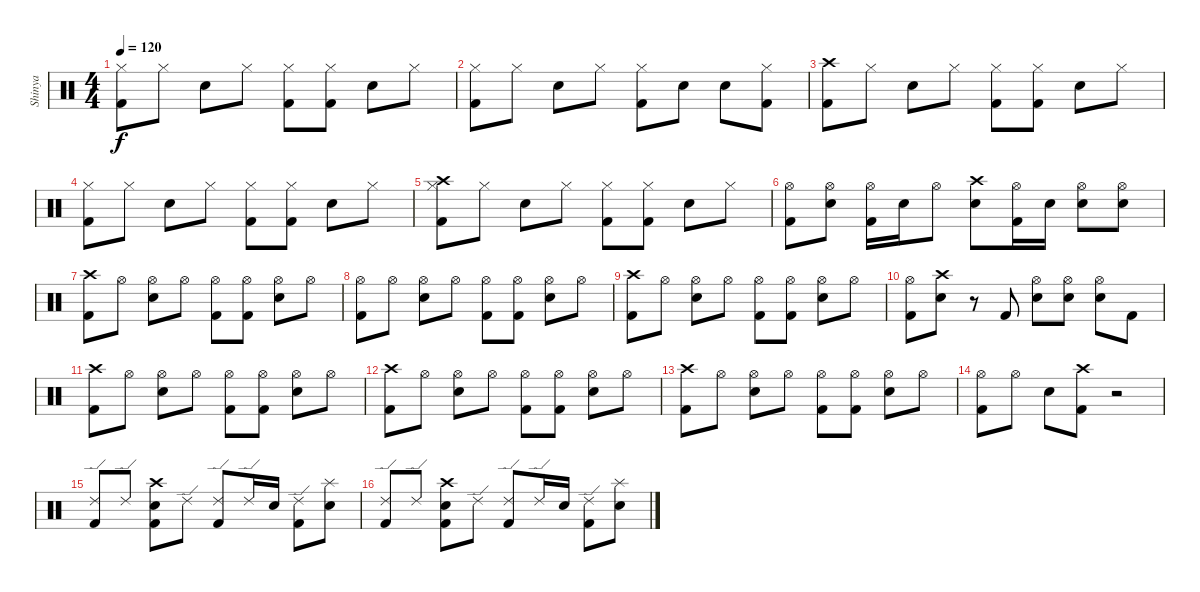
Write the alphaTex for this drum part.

\track ("Shinya" "Shinya") {instrument percussion}
\staff {score}
\articulation defaults
\ts (4 4)
\tempo 120
\clef neutral
\ks c
("Hi-Hat (closed)" "Kick (hit) 2").8{dy f} "Hi-Hat (closed)".8 "Electric Snare (hit)".8 "Hi-Hat (closed)".8 ("Hi-Hat (closed)" "Kick (hit) 2").8 ("Hi-Hat (closed)" "Kick (hit) 2").8 "Electric Snare (hit)".8 "Hi-Hat (closed)".8 |
("Hi-Hat (closed)" "Kick (hit) 2").8 "Hi-Hat (closed)".8 "Electric Snare (hit)".8 "Hi-Hat (closed)".8 ("Hi-Hat (closed)" "Kick (hit) 2").8 "Electric Snare (hit)".8 "Electric Snare (hit)".8 ("Hi-Hat (closed)" "Kick (hit) 2").8 |
("Crash high (hit)" "Kick (hit) 2").8 "Hi-Hat (closed)".8 "Electric Snare (hit)".8 "Hi-Hat (closed)".8 ("Hi-Hat (closed)" "Kick (hit) 2").8 ("Hi-Hat (closed)" "Kick (hit) 2").8 "Electric Snare (hit)".8 "Hi-Hat (closed)".8 |
("Hi-Hat (closed)" "Kick (hit) 2").8 "Hi-Hat (closed)".8 "Electric Snare (hit)".8 "Hi-Hat (closed)".8 ("Hi-Hat (closed)" "Kick (hit) 2").8 ("Hi-Hat (closed)" "Kick (hit) 2").8 "Electric Snare (hit)".8 "Hi-Hat (closed)".8 |
("Hi-Hat (closed)" "Crash high (hit)" "Kick (hit) 2").8 "Hi-Hat (closed)".8 "Electric Snare (hit)".8 "Hi-Hat (closed)".8 ("Hi-Hat (closed)" "Kick (hit) 2").8 ("Hi-Hat (closed)" "Kick (hit) 2").8 "Electric Snare (hit)".8 "Hi-Hat (closed)".8 |
("Hi-Hat (open)" "Kick (hit) 2").8 ("Electric Snare (hit)" "Hi-Hat (open)").8 ("Hi-Hat (open)" "Kick (hit) 2").16 "Electric Snare (hit)".16 "Hi-Hat (open)".8 ("Electric Snare (hit)" "Crash high (hit)").8 ("Hi-Hat (open)" "Kick (hit) 2").16 "Electric Snare (hit)".16 ("Electric Snare (hit)" "Hi-Hat (open)").8 ("Electric Snare (hit)" "Hi-Hat (open)").8 |
("Crash high (hit)" "Kick (hit) 2").8 "Hi-Hat (open)".8 ("Electric Snare (hit)" "Hi-Hat (open)").8 "Hi-Hat (open)".8 ("Hi-Hat (open)" "Kick (hit) 2").8 ("Hi-Hat (open)" "Kick (hit) 2").8 ("Electric Snare (hit)" "Hi-Hat (open)").8 "Hi-Hat (open)".8 |
("Hi-Hat (open)" "Kick (hit) 2").8 "Hi-Hat (open)".8 ("Electric Snare (hit)" "Hi-Hat (open)").8 "Hi-Hat (open)".8 ("Hi-Hat (open)" "Kick (hit) 2").8 ("Hi-Hat (open)" "Kick (hit) 2").8 ("Electric Snare (hit)" "Hi-Hat (open)").8 "Hi-Hat (open)".8 |
("Crash high (hit)" "Kick (hit) 2").8 "Hi-Hat (open)".8 ("Electric Snare (hit)" "Hi-Hat (open)").8 "Hi-Hat (open)".8 ("Hi-Hat (open)" "Kick (hit) 2").8 ("Hi-Hat (open)" "Kick (hit) 2").8 ("Electric Snare (hit)" "Hi-Hat (open)").8 "Hi-Hat (open)".8 |
("Hi-Hat (open)" "Kick (hit) 2").8 ("Electric Snare (hit)" "Crash high (hit)").8 r.8 "Kick (hit) 2".8 ("Electric Snare (hit)" "Hi-Hat (open)").8 ("Electric Snare (hit)" "Hi-Hat (open)").8 ("Electric Snare (hit)" "Hi-Hat (open)").8 "Kick (hit) 2".8 |
("Crash high (hit)" "Kick (hit) 2").8 "Hi-Hat (open)".8 ("Electric Snare (hit)" "Hi-Hat (open)").8 "Hi-Hat (open)".8 ("Hi-Hat (open)" "Kick (hit) 2").8 ("Hi-Hat (open)" "Kick (hit) 2").8 ("Electric Snare (hit)" "Hi-Hat (open)").8 "Hi-Hat (open)".8 |
("Crash high (hit)" "Kick (hit) 2").8 "Hi-Hat (open)".8 ("Electric Snare (hit)" "Hi-Hat (open)").8 "Hi-Hat (open)".8 ("Hi-Hat (open)" "Kick (hit) 2").8 ("Hi-Hat (open)" "Kick (hit) 2").8 ("Electric Snare (hit)" "Hi-Hat (open)").8 "Hi-Hat (open)".8 |
("Crash high (hit)" "Kick (hit) 2").8 "Hi-Hat (open)".8 ("Electric Snare (hit)" "Hi-Hat (open)").8 "Hi-Hat (open)".8 ("Hi-Hat (open)" "Kick (hit) 2").8 ("Hi-Hat (open)" "Kick (hit) 2").8 ("Electric Snare (hit)" "Hi-Hat (open)").8 "Hi-Hat (open)".8 |
("Hi-Hat (open)" "Kick (hit) 2").8 "Hi-Hat (open)".8 "Electric Snare (hit)".8 ("Crash high (hit)" "Kick (hit) 2").8 r.2 |
("Ride (edge) 2" "Kick (hit) 2").8 "Ride (edge) 2".8 ("Electric Snare (hit)" "Crash high (hit)" "Kick (hit) 2").8 "Ride (edge) 2".8 ("Ride (edge) 2" "Kick (hit) 2").8 "Ride (edge) 2".16 "Electric Snare (hit)".16 ("Ride (edge) 2" "Kick (hit) 2").8 ("Electric Snare (hit)" "Splash (hit)").8 |
("Ride (edge) 2" "Kick (hit) 2").8 "Ride (edge) 2".8 ("Electric Snare (hit)" "Crash high (hit)" "Kick (hit) 2").8 "Ride (edge) 2".8 ("Ride (edge) 2" "Kick (hit) 2").8 "Ride (edge) 2".16 "Electric Snare (hit)".16 ("Ride (edge) 2" "Kick (hit) 2").8 ("Electric Snare (hit)" "Splash (hit)").8
